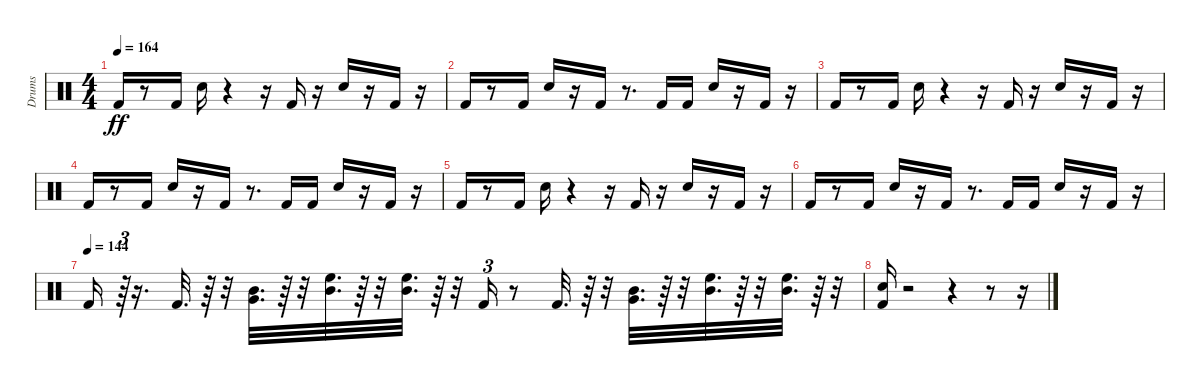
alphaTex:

\track ("Drums               " "Drums     ") {instrument percussion}
\staff {score}
\articulation defaults
\ts (4 4)
\tempo 164
\clef neutral
\ks c "Kick (hit) 2".16{dy ff}
r.8 "Kick (hit) 2".16 "Electric Snare (hit)".16 r.4 r.16 "Kick (hit) 2".16 r.16 "Electric Snare (hit)".16 r.16 "Kick (hit) 2".16 r.16 |
"Kick (hit) 2".16 r.8 "Kick (hit) 2".16 "Electric Snare (hit)".16 r.16 "Kick (hit) 2".16 r.8{d} "Kick (hit) 2".16 "Kick (hit) 2".16 "Electric Snare (hit)".16 r.16 "Kick (hit) 2".16 r.16 |
"Kick (hit) 2".16 r.8 "Kick (hit) 2".16 "Electric Snare (hit)".16 r.4 r.16 "Kick (hit) 2".16 r.16 "Electric Snare (hit)".16 r.16 "Kick (hit) 2".16 r.16 |
"Kick (hit) 2".16 r.8 "Kick (hit) 2".16 "Electric Snare (hit)".16 r.16 "Kick (hit) 2".16 r.8{d} "Kick (hit) 2".16 "Kick (hit) 2".16 "Electric Snare (hit)".16 r.16 "Kick (hit) 2".16 r.16 |
"Kick (hit) 2".16 r.8 "Kick (hit) 2".16 "Electric Snare (hit)".16 r.4 r.16 "Kick (hit) 2".16 r.16 "Electric Snare (hit)".16 r.16 "Kick (hit) 2".16 r.16 |
"Kick (hit) 2".16 r.8 "Kick (hit) 2".16 "Electric Snare (hit)".16 r.16 "Kick (hit) 2".16 r.8{d} "Kick (hit) 2".16 "Kick (hit) 2".16 "Electric Snare (hit)".16 r.16 "Kick (hit) 2".16 r.16 |
\tempo (144)
"Kick (hit) 2".16 r.64{tu (3 2)} r.16{d} "Kick (hit) 2".32{d} r.64 r.32 ("Mid Tom (hit)" "Very Low Tom (hit)").32{d} r.64 r.32 ("High Floor Tom (hit)" "Mid Tom (hit)").32{d} r.64 r.32 ("Mid Tom (hit)" "High Floor Tom (hit)").32{d} r.64 r.32 "Kick (hit) 2".16{tu (3 2)} r.8 "Kick (hit) 2".32{d} r.64 r.32 ("Mid Tom (hit)" "Very Low Tom (hit)").32{d} r.64 r.32 ("High Floor Tom (hit)" "Mid Tom (hit)").32{d} r.64 r.32 ("High Floor Tom (hit)" "Mid Tom (hit)").32{d} r.64 r.32 |
("Kick (hit) 2" "Electric Snare (hit)").16 r.2 r.4 r.8 r.16
